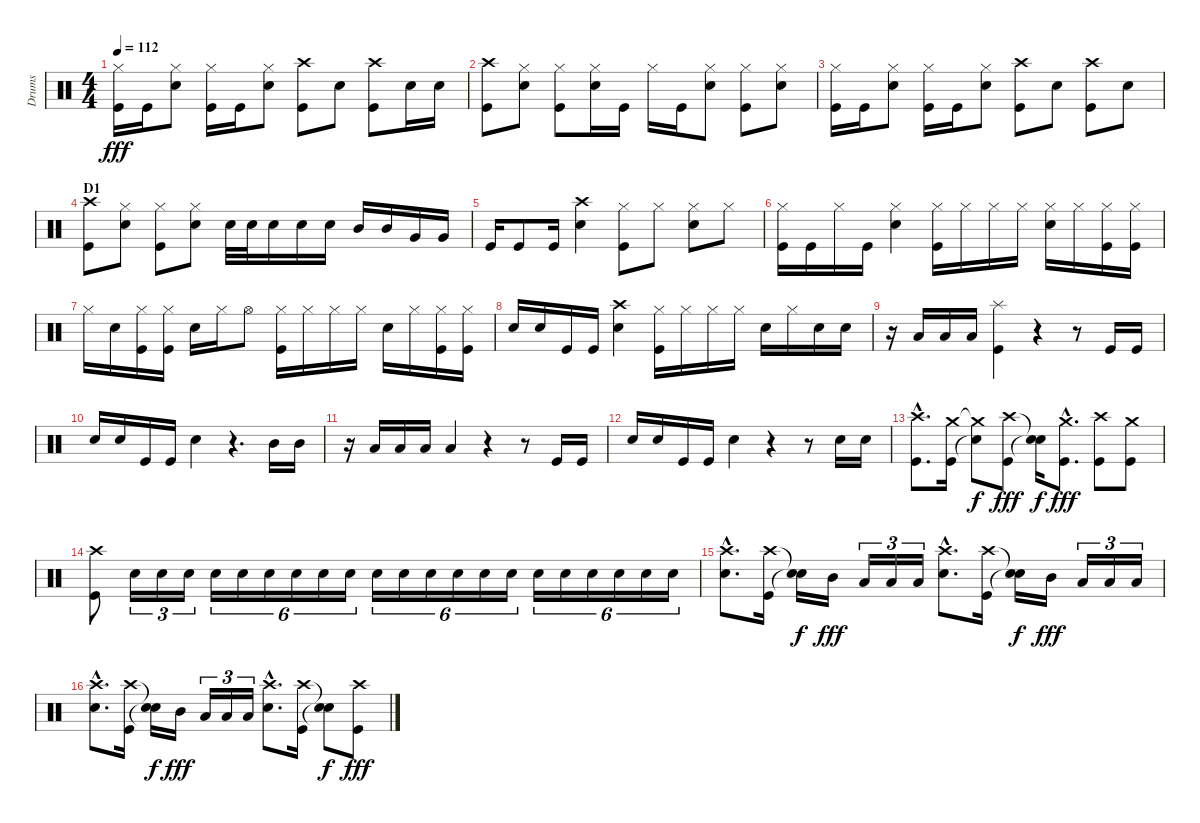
\track ("Drums" "Drums") {instrument percussion}
\staff {score}
\articulation defaults
\ts (4 4)
\tempo 112
\clef neutral
\ks c
("Hi-Hat (closed)" "Kick (hit)").16{dy fff} "Kick (hit)".16 ("Hi-Hat (closed)" "Snare (hit) 2").8 ("Hi-Hat (closed)" "Kick (hit)").16 "Kick (hit)".16 ("Hi-Hat (closed)" "Snare (hit) 2").8 ("Crash high (hit)" "Kick (hit)").8 "Snare (hit) 2".8 ("Crash high (hit)" "Kick (hit)").8 "Snare (hit) 2".16 "Snare (hit) 2".16 |
("Crash high (hit)" "Kick (hit)").8 ("Hi-Hat (closed)" "Snare (hit) 2").8 ("Hi-Hat (closed)" "Kick (hit)").8 ("Hi-Hat (closed)" "Snare (hit) 2").16 "Kick (hit)".16 "Hi-Hat (closed)".16 "Kick (hit)".16 ("Hi-Hat (closed)" "Snare (hit) 2").8 ("Hi-Hat (closed)" "Kick (hit)").8 ("Hi-Hat (closed)" "Snare (hit) 2").8 |
("Hi-Hat (closed)" "Kick (hit)").16 "Kick (hit)".16 ("Hi-Hat (closed)" "Snare (hit) 2").8 ("Hi-Hat (closed)" "Kick (hit)").16 "Kick (hit)".16 ("Hi-Hat (closed)" "Snare (hit) 2").8 ("Crash high (hit)" "Kick (hit)").8 "Snare (hit) 2".8 ("Crash high (hit)" "Kick (hit)").8 "Snare (hit) 2".8 |
\section ("" "D1")
("Crash high (hit)" "Kick (hit)").8 ("Hi-Hat (closed)" "Snare (hit) 2").8 ("Hi-Hat (closed)" "Kick (hit)").8 ("Hi-Hat (closed)" "Snare (hit) 2").8 "Snare (hit) 2".32 "Snare (hit) 2".32 "Snare (hit) 2".16 "Snare (hit) 2".16 "Snare (hit) 2".16 "Mid Tom (hit)".16 "Mid Tom (hit)".16 "Very Low Tom (hit)".16 "Very Low Tom (hit)".16 |
"Kick (hit)".16 "Kick (hit)".8 "Kick (hit)".16 ("Crash high (hit)" "Snare (hit) 2").4 ("Hi-Hat (closed)" "Kick (hit)").8 "Hi-Hat (closed)".8 ("Hi-Hat (closed)" "Snare (hit) 2").8 "Hi-Hat (closed)".8 |
("Hi-Hat (closed)" "Kick (hit)").16 "Kick (hit)".16 "Hi-Hat (closed)".16 "Kick (hit)".16 ("Hi-Hat (closed)" "Snare (hit) 2").4 ("Hi-Hat (closed)" "Kick (hit)").16 "Hi-Hat (closed)".16 "Hi-Hat (closed)".16 "Hi-Hat (closed)".16 ("Hi-Hat (closed)" "Snare (hit) 2").16 "Hi-Hat (closed)".16 ("Hi-Hat (closed)" "Kick (hit)").16 ("Hi-Hat (closed)" "Kick (hit)").16 |
"Hi-Hat (closed)".16 "Snare (hit) 2".16 ("Hi-Hat (closed)" "Kick (hit)").16 ("Hi-Hat (closed)" "Kick (hit)").16 "Snare (hit) 2".16 "Hi-Hat (closed)".16 "Hi-Hat (open)".8 ("Hi-Hat (closed)" "Kick (hit)").16 "Hi-Hat (closed)".16 "Hi-Hat (closed)".16 "Hi-Hat (closed)".16 "Snare (hit) 2".16 "Hi-Hat (closed)".16 ("Hi-Hat (closed)" "Kick (hit)").16 ("Hi-Hat (closed)" "Kick (hit)").16 |
"Snare (hit) 2".16 "Snare (hit) 2".16 "Kick (hit)".16 "Kick (hit)".16 ("Crash high (hit)" "Snare (hit) 2").4 ("Hi-Hat (closed)" "Kick (hit)").16 "Hi-Hat (closed)".16 "Hi-Hat (closed)".16 "Hi-Hat (closed)".16 "Snare (hit) 2".16 "Hi-Hat (closed)".16 "Snare (hit) 2".16 "Snare (hit) 2".16 |
r.16 "Low Tom (hit)".16 "Low Tom (hit)".16 "Low Tom (hit)".16 ("Splash (hit)" "Kick (hit)").4 r.4 r.8 "Kick (hit)".16 "Kick (hit)".16 |
"Snare (hit) 2".16 "Snare (hit) 2".16 "Kick (hit)".16 "Kick (hit)".16 "Snare (hit) 2".4 r.4{d} "Mid Tom (hit)".16 "Mid Tom (hit)".16 |
r.16 "Low Tom (hit)".16 "Low Tom (hit)".16 "Low Tom (hit)".16 "Low Tom (hit)".4 r.4 r.8 "Kick (hit)".16 "Kick (hit)".16 |
"Snare (hit) 2".16 "Snare (hit) 2".16 "Kick (hit)".16 "Kick (hit)".16 "Snare (hit) 2".4 r.4 r.8 "Snare (hit) 2".16 "Snare (hit) 2".16 |
("Crash high (hit)"{hac} "Kick (hit)"{hac}).8{d} ("Crash medium (hit)" "Kick (hit)").16 ("Crash medium (hit)"{t} "Snare (hit)"{t}).8{dy f} ("Crash high (hit)" "Kick (hit)").8{dy fff} ("Snare (hit)"{t} "Snare (hit)"{t}).16{dy f} ("Crash medium (hit)"{hac} "Kick (hit)"{hac}).8{d dy fff} ("Crash high (hit)" "Kick (hit)").8 ("Crash medium (hit)" "Kick (hit)").8 |
("Crash high (hit)" "Kick (hit)").8 "Snare (hit) 2".16{tu (3 2)} "Snare (hit) 2".16{tu (3 2)} "Snare (hit) 2".16{tu (3 2)} "Snare (hit) 2".16{tu (6 4)} "Snare (hit) 2".16{tu (6 4)} "Snare (hit) 2".16{tu (6 4)} "Snare (hit) 2".16{tu (6 4)} "Snare (hit) 2".16{tu (6 4)} "Snare (hit) 2".16{tu (6 4)} "Snare (hit) 2".16{tu (6 4)} "Snare (hit) 2".16{tu (6 4)} "Snare (hit) 2".16{tu (6 4)} "Snare (hit) 2".16{tu (6 4)} "Snare (hit) 2".16{tu (6 4)} "Snare (hit) 2".16{tu (6 4)} "Snare (hit) 2".16{tu (6 4)} "Snare (hit) 2".16{tu (6 4)} "Snare (hit) 2".16{tu (6 4)} "Snare (hit) 2".16{tu (6 4)} "Snare (hit) 2".16{tu (6 4)} "Snare (hit) 2".16{tu (6 4)} |
("Crash high (hit)"{hac} "Snare (hit) 2"{hac}).8{d} ("Crash high (hit)" "Kick (hit)").16 ("Snare (hit)"{t} "Snare (hit)"{t}).16{dy f} "Mid Tom (hit)".16{dy fff} "Low Tom (hit)".16{tu (3 2)} "Low Tom (hit)".16{tu (3 2)} "Low Tom (hit)".16{tu (3 2)} ("Crash high (hit)"{hac} "Snare (hit) 2"{hac}).8{d} ("Crash high (hit)" "Kick (hit)").16 ("Snare (hit)"{t} "Snare (hit)"{t}).16{dy f} "Mid Tom (hit)".16{dy fff} "Low Tom (hit)".16{tu (3 2)} "Low Tom (hit)".16{tu (3 2)} "Low Tom (hit)".16{tu (3 2)} |
("Crash high (hit)"{hac} "Snare (hit) 2"{hac}).8{d} ("Crash high (hit)" "Kick (hit)").16 ("Snare (hit)"{t} "Snare (hit)"{t}).16{dy f} "Mid Tom (hit)".16{dy fff} "Low Tom (hit)".16{tu (3 2)} "Low Tom (hit)".16{tu (3 2)} "Low Tom (hit)".16{tu (3 2)} ("Crash high (hit)"{hac} "Snare (hit) 2"{hac}).8{d} ("Crash high (hit)" "Kick (hit)").16 ("Snare (hit)"{t} "Snare (hit)"{t}).8{dy f} ("Crash high (hit)" "Kick (hit)").8{dy fff}
